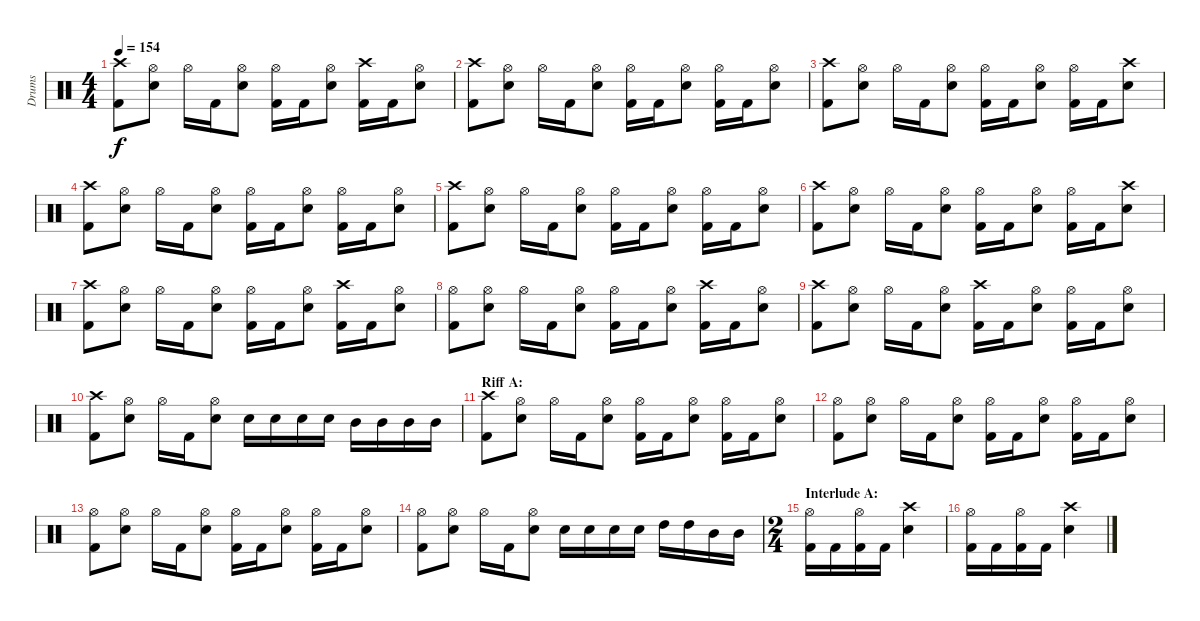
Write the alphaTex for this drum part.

\track ("Drums" "Drums") {instrument percussion}
\staff {score}
\articulation defaults
\ts (4 4)
\tempo 154
\clef neutral
\ks c
("Crash high (hit)" "Kick (hit) 2").8{dy f} ("Hi-Hat (open)" "Snare (hit) 2").8 "Hi-Hat (open)".16 "Kick (hit) 2".16 ("Hi-Hat (open)" "Snare (hit) 2").8 ("Hi-Hat (open)" "Kick (hit) 2").16 "Kick (hit) 2".16 ("Hi-Hat (open)" "Snare (hit) 2").8 ("Crash high (hit)" "Kick (hit) 2").16 "Kick (hit) 2".16 ("Hi-Hat (open)" "Snare (hit) 2").8 |
("Crash high (hit)" "Kick (hit) 2").8 ("Hi-Hat (open)" "Snare (hit) 2").8 "Hi-Hat (open)".16 "Kick (hit) 2".16 ("Hi-Hat (open)" "Snare (hit) 2").8 ("Hi-Hat (open)" "Kick (hit) 2").16 "Kick (hit) 2".16 ("Hi-Hat (open)" "Snare (hit) 2").8 ("Hi-Hat (open)" "Kick (hit) 2").16 "Kick (hit) 2".16 ("Hi-Hat (open)" "Snare (hit) 2").8 |
("Crash high (hit)" "Kick (hit) 2").8 ("Hi-Hat (open)" "Snare (hit) 2").8 "Hi-Hat (open)".16 "Kick (hit) 2".16 ("Hi-Hat (open)" "Snare (hit) 2").8 ("Hi-Hat (open)" "Kick (hit) 2").16 "Kick (hit) 2".16 ("Hi-Hat (open)" "Snare (hit) 2").8 ("Hi-Hat (open)" "Kick (hit) 2").16 "Kick (hit) 2".16 ("Crash high (hit)" "Snare (hit) 2").8 |
("Crash high (hit)" "Kick (hit) 2").8 ("Hi-Hat (open)" "Snare (hit) 2").8 "Hi-Hat (open)".16 "Kick (hit) 2".16 ("Hi-Hat (open)" "Snare (hit) 2").8 ("Hi-Hat (open)" "Kick (hit) 2").16 "Kick (hit) 2".16 ("Hi-Hat (open)" "Snare (hit) 2").8 ("Hi-Hat (open)" "Kick (hit) 2").16 "Kick (hit) 2".16 ("Hi-Hat (open)" "Snare (hit) 2").8 |
("Crash high (hit)" "Kick (hit) 2").8 ("Hi-Hat (open)" "Snare (hit) 2").8 "Hi-Hat (open)".16 "Kick (hit) 2".16 ("Hi-Hat (open)" "Snare (hit) 2").8 ("Hi-Hat (open)" "Kick (hit) 2").16 "Kick (hit) 2".16 ("Hi-Hat (open)" "Snare (hit) 2").8 ("Hi-Hat (open)" "Kick (hit) 2").16 "Kick (hit) 2".16 ("Hi-Hat (open)" "Snare (hit) 2").8 |
("Crash high (hit)" "Kick (hit) 2").8 ("Hi-Hat (open)" "Snare (hit) 2").8 "Hi-Hat (open)".16 "Kick (hit) 2".16 ("Hi-Hat (open)" "Snare (hit) 2").8 ("Hi-Hat (open)" "Kick (hit) 2").16 "Kick (hit) 2".16 ("Hi-Hat (open)" "Snare (hit) 2").8 ("Hi-Hat (open)" "Kick (hit) 2").16 "Kick (hit) 2".16 ("Crash high (hit)" "Snare (hit) 2").8 |
("Crash high (hit)" "Kick (hit) 2").8 ("Hi-Hat (open)" "Snare (hit) 2").8 "Hi-Hat (open)".16 "Kick (hit) 2".16 ("Hi-Hat (open)" "Snare (hit) 2").8 ("Hi-Hat (open)" "Kick (hit) 2").16 "Kick (hit) 2".16 ("Hi-Hat (open)" "Snare (hit) 2").8 ("Crash high (hit)" "Kick (hit) 2").16 "Kick (hit) 2".16 ("Hi-Hat (open)" "Snare (hit) 2").8 |
("Hi-Hat (open)" "Kick (hit) 2").8 ("Hi-Hat (open)" "Snare (hit) 2").8 "Hi-Hat (open)".16 "Kick (hit) 2".16 ("Hi-Hat (open)" "Snare (hit) 2").8 ("Hi-Hat (open)" "Kick (hit) 2").16 "Kick (hit) 2".16 ("Hi-Hat (open)" "Snare (hit) 2").8 ("Crash high (hit)" "Kick (hit) 2").16 "Kick (hit) 2".16 ("Hi-Hat (open)" "Snare (hit) 2").8 |
("Crash high (hit)" "Kick (hit) 2").8 ("Hi-Hat (open)" "Snare (hit) 2").8 "Hi-Hat (open)".16 "Kick (hit) 2".16 ("Hi-Hat (open)" "Snare (hit) 2").8 ("Crash high (hit)" "Kick (hit) 2").16 "Kick (hit) 2".16 ("Hi-Hat (open)" "Snare (hit) 2").8 ("Hi-Hat (open)" "Kick (hit) 2").16 "Kick (hit) 2".16 ("Hi-Hat (open)" "Snare (hit) 2").8 |
("Crash high (hit)" "Kick (hit) 2").8 ("Hi-Hat (open)" "Snare (hit) 2").8 "Hi-Hat (open)".16 "Kick (hit) 2".16 ("Hi-Hat (open)" "Snare (hit) 2").8 "Snare (hit) 2".16 "Snare (hit) 2".16 "Snare (hit) 2".16 "Snare (hit) 2".16 "Mid Tom (hit)".16 "Mid Tom (hit)".16 "Mid Tom (hit)".16 "Mid Tom (hit)".16 |
\section ("" "Riff A:")
("Crash high (hit)" "Kick (hit) 2").8 ("Hi-Hat (open)" "Snare (hit) 2").8 "Hi-Hat (open)".16 "Kick (hit) 2".16 ("Hi-Hat (open)" "Snare (hit) 2").8 ("Hi-Hat (open)" "Kick (hit) 2").16 "Kick (hit) 2".16 ("Hi-Hat (open)" "Snare (hit) 2").8 ("Hi-Hat (open)" "Kick (hit) 2").16 "Kick (hit) 2".16 ("Hi-Hat (open)" "Snare (hit) 2").8 |
("Hi-Hat (open)" "Kick (hit) 2").8 ("Hi-Hat (open)" "Snare (hit) 2").8 "Hi-Hat (open)".16 "Kick (hit) 2".16 ("Hi-Hat (open)" "Snare (hit) 2").8 ("Hi-Hat (open)" "Kick (hit) 2").16 "Kick (hit) 2".16 ("Hi-Hat (open)" "Snare (hit) 2").8 ("Hi-Hat (open)" "Kick (hit) 2").16 "Kick (hit) 2".16 ("Hi-Hat (open)" "Snare (hit) 2").8 |
("Hi-Hat (open)" "Kick (hit) 2").8 ("Hi-Hat (open)" "Snare (hit) 2").8 "Hi-Hat (open)".16 "Kick (hit) 2".16 ("Hi-Hat (open)" "Snare (hit) 2").8 ("Hi-Hat (open)" "Kick (hit) 2").16 "Kick (hit) 2".16 ("Hi-Hat (open)" "Snare (hit) 2").8 ("Hi-Hat (open)" "Kick (hit) 2").16 "Kick (hit) 2".16 ("Hi-Hat (open)" "Snare (hit) 2").8 |
("Hi-Hat (open)" "Kick (hit) 2").8 ("Hi-Hat (open)" "Snare (hit) 2").8 "Hi-Hat (open)".16 "Kick (hit) 2".16 ("Hi-Hat (open)" "Snare (hit) 2").8 "Snare (hit) 2".16 "Snare (hit) 2".16 "Snare (hit) 2".16 "Snare (hit) 2".16 "High Tom (hit)".16 "High Tom (hit)".16 "Mid Tom (hit)".16 "Mid Tom (hit)".16 |
\ts (2 4)
\section ("" "Interlude A:")
("Hi-Hat (open)" "Kick (hit) 2").16 "Kick (hit) 2".16 ("Hi-Hat (open)" "Kick (hit) 2").16 "Kick (hit) 2".16 ("Crash high (hit)" "Snare (hit) 2").4 |
("Hi-Hat (open)" "Kick (hit) 2").16 "Kick (hit) 2".16 ("Hi-Hat (open)" "Kick (hit) 2").16 "Kick (hit) 2".16 ("Crash high (hit)" "Snare (hit) 2").4
